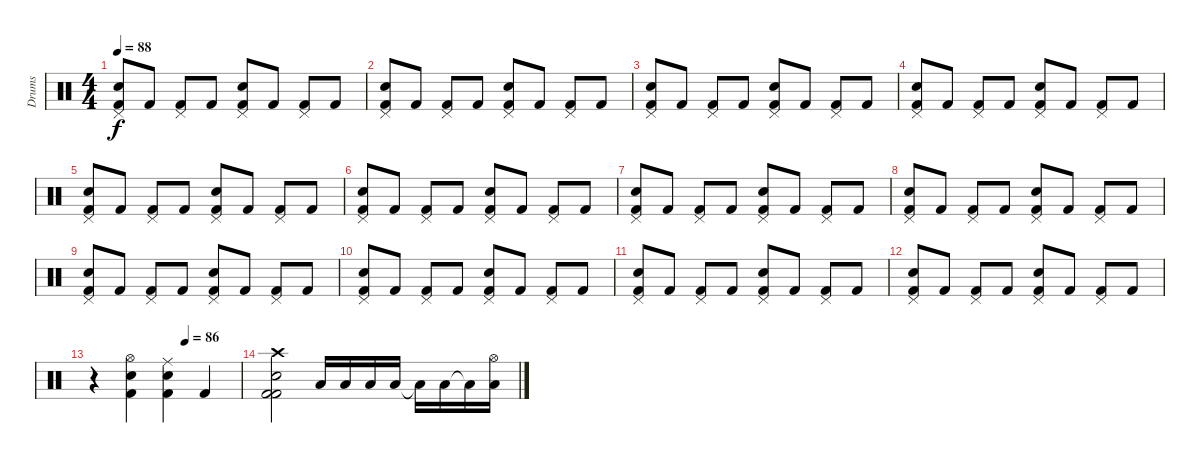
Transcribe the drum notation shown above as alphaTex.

\track ("Drums" "Drums") {instrument percussion}
\staff {score}
\articulation defaults
\ts (4 4)
\tempo 88
\clef neutral
\ks c
("Pedal Hi-Hat (hit)" "Kick (hit) 2" "Electric Snare (hit)").8{dy f} "Kick (hit) 2".8 ("Pedal Hi-Hat (hit)" "Kick (hit) 2").8 "Kick (hit) 2".8 ("Pedal Hi-Hat (hit)" "Kick (hit) 2" "Electric Snare (hit)").8 "Kick (hit) 2".8 ("Pedal Hi-Hat (hit)" "Kick (hit) 2").8 "Kick (hit) 2".8 |
("Pedal Hi-Hat (hit)" "Kick (hit) 2" "Electric Snare (hit)").8 "Kick (hit) 2".8 ("Pedal Hi-Hat (hit)" "Kick (hit) 2").8 "Kick (hit) 2".8 ("Pedal Hi-Hat (hit)" "Kick (hit) 2" "Electric Snare (hit)").8 "Kick (hit) 2".8 ("Pedal Hi-Hat (hit)" "Kick (hit) 2").8 "Kick (hit) 2".8 |
("Pedal Hi-Hat (hit)" "Kick (hit) 2" "Electric Snare (hit)").8 "Kick (hit) 2".8 ("Pedal Hi-Hat (hit)" "Kick (hit) 2").8 "Kick (hit) 2".8 ("Pedal Hi-Hat (hit)" "Kick (hit) 2" "Electric Snare (hit)").8 "Kick (hit) 2".8 ("Pedal Hi-Hat (hit)" "Kick (hit) 2").8 "Kick (hit) 2".8 |
("Pedal Hi-Hat (hit)" "Kick (hit) 2" "Electric Snare (hit)").8 "Kick (hit) 2".8 ("Pedal Hi-Hat (hit)" "Kick (hit) 2").8 "Kick (hit) 2".8 ("Pedal Hi-Hat (hit)" "Kick (hit) 2" "Electric Snare (hit)").8 "Kick (hit) 2".8 ("Pedal Hi-Hat (hit)" "Kick (hit) 2").8 "Kick (hit) 2".8 |
("Pedal Hi-Hat (hit)" "Kick (hit) 2" "Electric Snare (hit)").8 "Kick (hit) 2".8 ("Pedal Hi-Hat (hit)" "Kick (hit) 2").8 "Kick (hit) 2".8 ("Pedal Hi-Hat (hit)" "Kick (hit) 2" "Electric Snare (hit)").8 "Kick (hit) 2".8 ("Pedal Hi-Hat (hit)" "Kick (hit) 2").8 "Kick (hit) 2".8 |
("Pedal Hi-Hat (hit)" "Kick (hit) 2" "Electric Snare (hit)").8 "Kick (hit) 2".8 ("Pedal Hi-Hat (hit)" "Kick (hit) 2").8 "Kick (hit) 2".8 ("Pedal Hi-Hat (hit)" "Kick (hit) 2" "Electric Snare (hit)").8 "Kick (hit) 2".8 ("Pedal Hi-Hat (hit)" "Kick (hit) 2").8 "Kick (hit) 2".8 |
("Pedal Hi-Hat (hit)" "Kick (hit) 2" "Electric Snare (hit)").8 "Kick (hit) 2".8 ("Pedal Hi-Hat (hit)" "Kick (hit) 2").8 "Kick (hit) 2".8 ("Pedal Hi-Hat (hit)" "Kick (hit) 2" "Electric Snare (hit)").8 "Kick (hit) 2".8 ("Pedal Hi-Hat (hit)" "Kick (hit) 2").8 "Kick (hit) 2".8 |
("Pedal Hi-Hat (hit)" "Kick (hit) 2" "Electric Snare (hit)").8 "Kick (hit) 2".8 ("Pedal Hi-Hat (hit)" "Kick (hit) 2").8 "Kick (hit) 2".8 ("Pedal Hi-Hat (hit)" "Kick (hit) 2" "Electric Snare (hit)").8 "Kick (hit) 2".8 ("Pedal Hi-Hat (hit)" "Kick (hit) 2").8 "Kick (hit) 2".8 |
("Pedal Hi-Hat (hit)" "Kick (hit) 2" "Electric Snare (hit)").8 "Kick (hit) 2".8 ("Pedal Hi-Hat (hit)" "Kick (hit) 2").8 "Kick (hit) 2".8 ("Pedal Hi-Hat (hit)" "Kick (hit) 2" "Electric Snare (hit)").8 "Kick (hit) 2".8 ("Pedal Hi-Hat (hit)" "Kick (hit) 2").8 "Kick (hit) 2".8 |
("Pedal Hi-Hat (hit)" "Kick (hit) 2" "Electric Snare (hit)").8 "Kick (hit) 2".8 ("Pedal Hi-Hat (hit)" "Kick (hit) 2").8 "Kick (hit) 2".8 ("Pedal Hi-Hat (hit)" "Kick (hit) 2" "Electric Snare (hit)").8 "Kick (hit) 2".8 ("Pedal Hi-Hat (hit)" "Kick (hit) 2").8 "Kick (hit) 2".8 |
("Pedal Hi-Hat (hit)" "Kick (hit) 2" "Electric Snare (hit)").8 "Kick (hit) 2".8 ("Pedal Hi-Hat (hit)" "Kick (hit) 2").8 "Kick (hit) 2".8 ("Pedal Hi-Hat (hit)" "Kick (hit) 2" "Electric Snare (hit)").8 "Kick (hit) 2".8 ("Pedal Hi-Hat (hit)" "Kick (hit) 2").8 "Kick (hit) 2".8 |
("Pedal Hi-Hat (hit)" "Kick (hit) 2" "Electric Snare (hit)").8 "Kick (hit) 2".8 ("Pedal Hi-Hat (hit)" "Kick (hit) 2").8 "Kick (hit) 2".8 ("Pedal Hi-Hat (hit)" "Kick (hit) 2" "Electric Snare (hit)").8 "Kick (hit) 2".8 ("Pedal Hi-Hat (hit)" "Kick (hit) 2").8 "Kick (hit) 2".8 |
\tempo (86 0.625)
r.4 ("Snare (hit) 2" "Kick (hit) 2" "Hi-Hat (open)").4 ("Ride (middle)" "Kick (hit) 2" "Snare (hit) 2").4 "Kick (hit) 2".4 |
("Kick (hit) 2" "Snare (hit) 2" "Kick (hit) 2" "Crash high (hit)").2 "Low Floor Tom (hit)".16 "Low Floor Tom (hit)".16 "Low Floor Tom (hit)".16 "Low Floor Tom (hit)".16 "Low Floor Tom (hit)"{t}.16 "Low Floor Tom (hit)".16 "Low Floor Tom (hit)"{t}.16 ("Hi-Hat (open)" "Low Floor Tom (hit)").16
